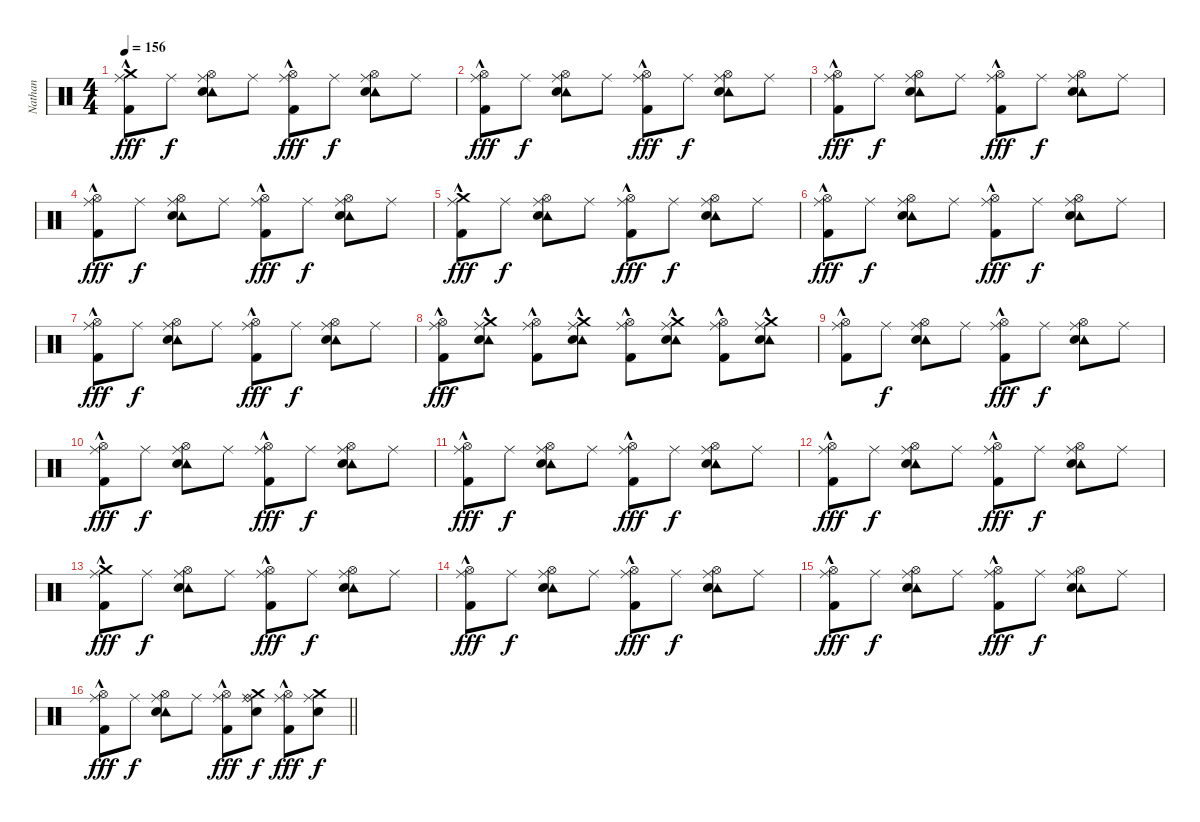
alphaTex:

\track ("Nathan" "Nathan") {instrument percussion}
\staff {score}
\articulation defaults
\ts (4 4)
\tempo 156
\clef neutral
\ks c
("Crash medium (hit)" "Ride (middle)" "Kick (hit) 2"{hac}).8{dy fff} "Ride (middle)".8{dy f} ("Hi-Hat (open)" "Ride (middle)" "Tambourine (hit)" "Snare (hit) 2").8 "Ride (middle)".8 ("Hi-Hat (open)" "Ride (middle)" "Kick (hit) 2"{hac}).8{dy fff} "Ride (middle)".8{dy f} ("Hi-Hat (open)" "Ride (middle)" "Tambourine (hit)" "Snare (hit) 2").8 "Ride (middle)".8 |
("Hi-Hat (open)" "Ride (middle)" "Kick (hit) 2"{hac}).8{dy fff} "Ride (middle)".8{dy f} ("Hi-Hat (open)" "Ride (middle)" "Tambourine (hit)" "Snare (hit) 2").8 "Ride (middle)".8 ("Hi-Hat (open)" "Ride (middle)" "Kick (hit) 2"{hac}).8{dy fff} "Ride (middle)".8{dy f} ("Hi-Hat (open)" "Ride (middle)" "Tambourine (hit)" "Snare (hit) 2").8 "Ride (middle)".8 |
("Hi-Hat (open)" "Ride (middle)" "Kick (hit) 2"{hac}).8{dy fff} "Ride (middle)".8{dy f} ("Hi-Hat (open)" "Ride (middle)" "Tambourine (hit)" "Snare (hit) 2").8 "Ride (middle)".8 ("Hi-Hat (open)" "Ride (middle)" "Kick (hit) 2"{hac}).8{dy fff} "Ride (middle)".8{dy f} ("Hi-Hat (open)" "Ride (middle)" "Tambourine (hit)" "Snare (hit) 2").8 "Ride (middle)".8 |
("Hi-Hat (open)" "Ride (middle)" "Kick (hit) 2"{hac}).8{dy fff} "Ride (middle)".8{dy f} ("Hi-Hat (open)" "Ride (middle)" "Tambourine (hit)" "Snare (hit) 2").8 "Ride (middle)".8 ("Hi-Hat (open)" "Ride (middle)" "Kick (hit) 2"{hac}).8{dy fff} "Ride (middle)".8{dy f} ("Hi-Hat (open)" "Ride (middle)" "Tambourine (hit)" "Snare (hit) 2").8 "Ride (middle)".8 |
("Crash medium (hit)" "Ride (middle)" "Kick (hit) 2"{hac}).8{dy fff} "Ride (middle)".8{dy f} ("Hi-Hat (open)" "Ride (middle)" "Tambourine (hit)" "Snare (hit) 2").8 "Ride (middle)".8 ("Hi-Hat (open)" "Ride (middle)" "Kick (hit) 2"{hac}).8{dy fff} "Ride (middle)".8{dy f} ("Hi-Hat (open)" "Ride (middle)" "Tambourine (hit)" "Snare (hit) 2").8 "Ride (middle)".8 |
("Hi-Hat (open)" "Ride (middle)" "Kick (hit) 2"{hac}).8{dy fff} "Ride (middle)".8{dy f} ("Hi-Hat (open)" "Ride (middle)" "Tambourine (hit)" "Snare (hit) 2").8 "Ride (middle)".8 ("Hi-Hat (open)" "Ride (middle)" "Kick (hit) 2"{hac}).8{dy fff} "Ride (middle)".8{dy f} ("Hi-Hat (open)" "Ride (middle)" "Tambourine (hit)" "Snare (hit) 2").8 "Ride (middle)".8 |
("Hi-Hat (open)" "Ride (middle)" "Kick (hit) 2"{hac}).8{dy fff} "Ride (middle)".8{dy f} ("Hi-Hat (open)" "Ride (middle)" "Tambourine (hit)" "Snare (hit) 2").8 "Ride (middle)".8 ("Hi-Hat (open)" "Ride (middle)" "Kick (hit) 2"{hac}).8{dy fff} "Ride (middle)".8{dy f} ("Hi-Hat (open)" "Ride (middle)" "Tambourine (hit)" "Snare (hit) 2").8 "Ride (middle)".8 |
("Hi-Hat (open)" "Ride (middle)" "Kick (hit) 2"{hac}).8{dy fff} ("Crash medium (hit)" "Ride (middle)" "Tambourine (hit)" "Snare (hit) 2"{hac}).8 ("Hi-Hat (open)" "Ride (middle)" "Kick (hit) 2"{hac}).8 ("Crash medium (hit)" "Ride (middle)" "Tambourine (hit)" "Snare (hit) 2"{hac}).8 ("Hi-Hat (open)" "Ride (middle)" "Kick (hit) 2"{hac}).8 ("Crash medium (hit)" "Ride (middle)" "Tambourine (hit)" "Snare (hit) 2"{hac}).8 ("Hi-Hat (open)" "Ride (middle)" "Kick (hit) 2"{hac}).8 ("Crash medium (hit)" "Ride (middle)" "Tambourine (hit)" "Snare (hit) 2"{hac}).8 |
("Hi-Hat (open)" "Ride (middle)" "Kick (hit) 2"{hac}).8 "Ride (middle)".8{dy f} ("Hi-Hat (open)" "Ride (middle)" "Tambourine (hit)" "Snare (hit) 2").8 "Ride (middle)".8 ("Hi-Hat (open)" "Ride (middle)" "Kick (hit) 2"{hac}).8{dy fff} "Ride (middle)".8{dy f} ("Hi-Hat (open)" "Ride (middle)" "Tambourine (hit)" "Snare (hit) 2").8 "Ride (middle)".8 |
("Hi-Hat (open)" "Ride (middle)" "Kick (hit) 2"{hac}).8{dy fff} "Ride (middle)".8{dy f} ("Hi-Hat (open)" "Ride (middle)" "Tambourine (hit)" "Snare (hit) 2").8 "Ride (middle)".8 ("Hi-Hat (open)" "Ride (middle)" "Kick (hit) 2"{hac}).8{dy fff} "Ride (middle)".8{dy f} ("Hi-Hat (open)" "Ride (middle)" "Tambourine (hit)" "Snare (hit) 2").8 "Ride (middle)".8 |
("Hi-Hat (open)" "Ride (middle)" "Kick (hit) 2"{hac}).8{dy fff} "Ride (middle)".8{dy f} ("Hi-Hat (open)" "Ride (middle)" "Tambourine (hit)" "Snare (hit) 2").8 "Ride (middle)".8 ("Hi-Hat (open)" "Ride (middle)" "Kick (hit) 2"{hac}).8{dy fff} "Ride (middle)".8{dy f} ("Hi-Hat (open)" "Ride (middle)" "Tambourine (hit)" "Snare (hit) 2").8 "Ride (middle)".8 |
("Hi-Hat (open)" "Ride (middle)" "Kick (hit) 2"{hac}).8{dy fff} "Ride (middle)".8{dy f} ("Hi-Hat (open)" "Ride (middle)" "Tambourine (hit)" "Snare (hit) 2").8 "Ride (middle)".8 ("Hi-Hat (open)" "Ride (middle)" "Kick (hit) 2"{hac}).8{dy fff} "Ride (middle)".8{dy f} ("Hi-Hat (open)" "Ride (middle)" "Tambourine (hit)" "Snare (hit) 2").8 "Ride (middle)".8 |
("Crash medium (hit)" "Ride (middle)" "Kick (hit) 2"{hac}).8{dy fff} "Ride (middle)".8{dy f} ("Hi-Hat (open)" "Ride (middle)" "Tambourine (hit)" "Snare (hit) 2").8 "Ride (middle)".8 ("Hi-Hat (open)" "Ride (middle)" "Kick (hit) 2"{hac}).8{dy fff} "Ride (middle)".8{dy f} ("Hi-Hat (open)" "Ride (middle)" "Tambourine (hit)" "Snare (hit) 2").8 "Ride (middle)".8 |
("Hi-Hat (open)" "Ride (middle)" "Kick (hit) 2"{hac}).8{dy fff} "Ride (middle)".8{dy f} ("Hi-Hat (open)" "Ride (middle)" "Tambourine (hit)" "Snare (hit) 2").8 "Ride (middle)".8 ("Hi-Hat (open)" "Ride (middle)" "Kick (hit) 2"{hac}).8{dy fff} "Ride (middle)".8{dy f} ("Hi-Hat (open)" "Ride (middle)" "Tambourine (hit)" "Snare (hit) 2").8 "Ride (middle)".8 |
("Hi-Hat (open)" "Ride (middle)" "Kick (hit) 2"{hac}).8{dy fff} "Ride (middle)".8{dy f} ("Hi-Hat (open)" "Ride (middle)" "Tambourine (hit)" "Snare (hit) 2").8 "Ride (middle)".8 ("Hi-Hat (open)" "Ride (middle)" "Kick (hit) 2"{hac}).8{dy fff} "Ride (middle)".8{dy f} ("Hi-Hat (open)" "Ride (middle)" "Tambourine (hit)" "Snare (hit) 2").8 "Ride (middle)".8 |
\barLineRight lightlight
("Hi-Hat (open)" "Ride (middle)" "Kick (hit) 2"{hac}).8{dy fff} "Ride (middle)".8{dy f} ("Hi-Hat (open)" "Ride (middle)" "Tambourine (hit)" "Snare (hit) 2").8 "Ride (middle)".8 ("Hi-Hat (open)" "Ride (middle)" "Kick (hit) 2"{hac}).8{dy fff} ("Crash medium (hit)" "Ride (middle)" "Ride (bell)" "Snare (hit) 2").8{dy f} ("Hi-Hat (open)" "Ride (middle)" "Kick (hit) 2"{hac}).8{dy fff} ("Crash medium (hit)" "Ride (middle)" "Snare (hit) 2").8{dy f}
